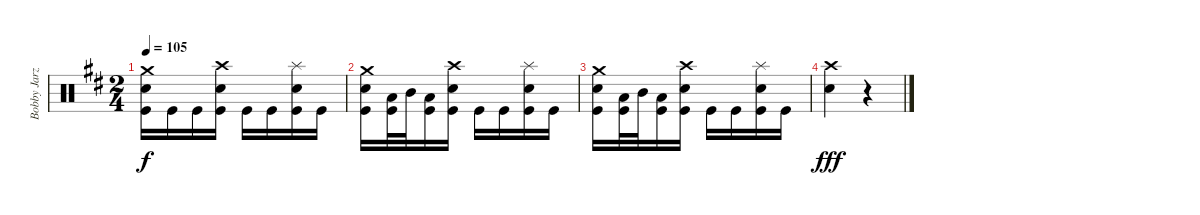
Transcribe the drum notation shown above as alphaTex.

\track ("Bobby Jarzombek" "Bobby Jarz") {instrument percussion}
\staff {score}
\articulation defaults
\ts (2 4)
\tempo 105
\clef neutral
\ks d
("Crash medium (hit)" "Electric Snare (hit)" "Kick (hit)").16{dy f} "Kick (hit)".16 "Kick (hit)".16 ("Crash high (hit)" "Electric Snare (hit)" "Kick (hit)").16 "Kick (hit)".16 "Kick (hit)".16 ("Splash (hit)" "Electric Snare (hit)" "Kick (hit)").16 "Kick (hit)".16 |
("Crash medium (hit)" "Electric Snare (hit)" "Kick (hit)").16 ("Low Tom (hit)" "Kick (hit)").32 "Mid Tom (hit)".32 ("Low Tom (hit)" "Kick (hit)").16 ("Crash high (hit)" "Electric Snare (hit)" "Kick (hit)").16 "Kick (hit)".16 "Kick (hit)".16 ("Splash (hit)" "Electric Snare (hit)" "Kick (hit)").16 "Kick (hit)".16 |
("Crash medium (hit)" "Electric Snare (hit)" "Kick (hit)").16 ("Low Tom (hit)" "Kick (hit)").32 "Mid Tom (hit)".32 ("Low Tom (hit)" "Kick (hit)").16 ("Crash high (hit)" "Electric Snare (hit)" "Kick (hit)").16 "Kick (hit)".16 "Kick (hit)".16 ("Splash (hit)" "Electric Snare (hit)" "Kick (hit)").16 "Kick (hit)".16 |
("Crash high (hit)" "Electric Snare (hit)").4{dy fff} r.4
